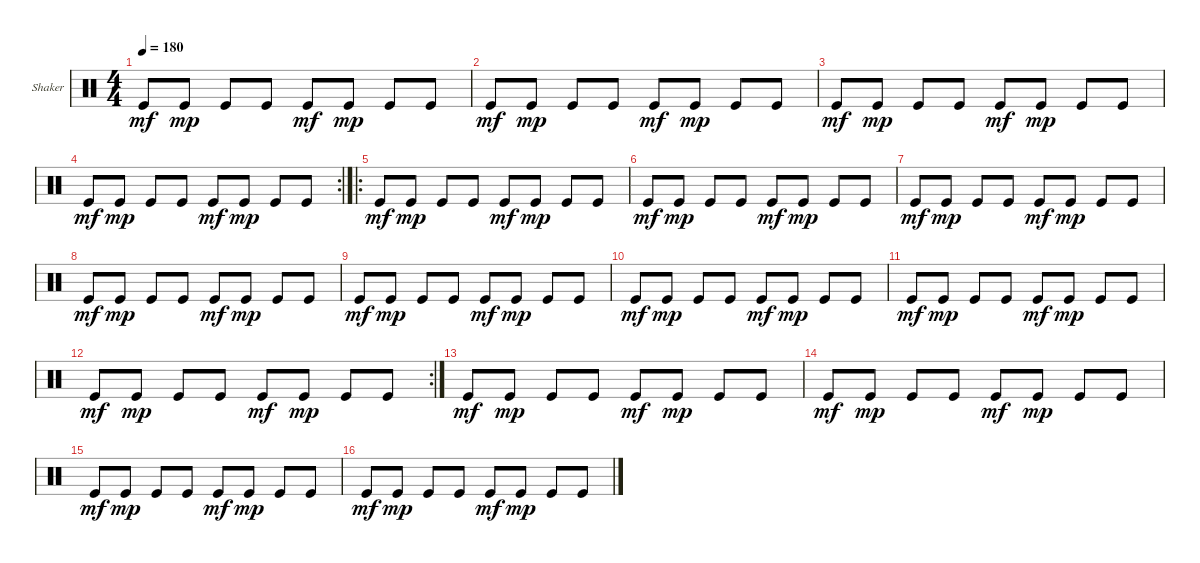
\defaultSystemsLayout 4
\bracketExtendMode groupsimilarinstruments
\firstSystemTrackNameOrientation horizontal
\otherSystemsTrackNameOrientation horizontal
\track ("Shaker" "Shaker") {instrument percussion}
\staff {score}
\articulation defaults
\ts (4 4)
\tempo 180
\clef neutral
\ks c "Kick (hit)".8{dy mf} "Kick (hit)".8{dy mp} "Kick (hit)".8 "Kick (hit)".8 "Kick (hit)".8{dy mf} "Kick (hit)".8{dy mp} "Kick (hit)".8 "Kick (hit)".8
|
"Kick (hit)".8{dy mf} "Kick (hit)".8{dy mp} "Kick (hit)".8 "Kick (hit)".8 "Kick (hit)".8{dy mf} "Kick (hit)".8{dy mp} "Kick (hit)".8 "Kick (hit)".8 |
"Kick (hit)".8{dy mf} "Kick (hit)".8{dy mp} "Kick (hit)".8 "Kick (hit)".8 "Kick (hit)".8{dy mf} "Kick (hit)".8{dy mp} "Kick (hit)".8 "Kick (hit)".8 |
\rc 2 "Kick (hit)".8{dy mf} "Kick (hit)".8{dy mp} "Kick (hit)".8 "Kick (hit)".8 "Kick (hit)".8{dy mf} "Kick (hit)".8{dy mp} "Kick (hit)".8 "Kick (hit)".8
|
\ro "Kick (hit)".8{dy mf} "Kick (hit)".8{dy mp} "Kick (hit)".8 "Kick (hit)".8 "Kick (hit)".8{dy mf} "Kick (hit)".8{dy mp} "Kick (hit)".8 "Kick (hit)".8
|
"Kick (hit)".8{dy mf} "Kick (hit)".8{dy mp} "Kick (hit)".8 "Kick (hit)".8 "Kick (hit)".8{dy mf} "Kick (hit)".8{dy mp} "Kick (hit)".8 "Kick (hit)".8 |
"Kick (hit)".8{dy mf} "Kick (hit)".8{dy mp} "Kick (hit)".8 "Kick (hit)".8 "Kick (hit)".8{dy mf} "Kick (hit)".8{dy mp} "Kick (hit)".8 "Kick (hit)".8 |
"Kick (hit)".8{dy mf} "Kick (hit)".8{dy mp} "Kick (hit)".8 "Kick (hit)".8 "Kick (hit)".8{dy mf} "Kick (hit)".8{dy mp} "Kick (hit)".8 "Kick (hit)".8 |
"Kick (hit)".8{dy mf} "Kick (hit)".8{dy mp} "Kick (hit)".8 "Kick (hit)".8 "Kick (hit)".8{dy mf} "Kick (hit)".8{dy mp} "Kick (hit)".8 "Kick (hit)".8 |
"Kick (hit)".8{dy mf} "Kick (hit)".8{dy mp} "Kick (hit)".8 "Kick (hit)".8 "Kick (hit)".8{dy mf} "Kick (hit)".8{dy mp} "Kick (hit)".8 "Kick (hit)".8 |
"Kick (hit)".8{dy mf} "Kick (hit)".8{dy mp} "Kick (hit)".8 "Kick (hit)".8 "Kick (hit)".8{dy mf} "Kick (hit)".8{dy mp} "Kick (hit)".8 "Kick (hit)".8 |
\rc 2 "Kick (hit)".8{dy mf} "Kick (hit)".8{dy mp} "Kick (hit)".8 "Kick (hit)".8 "Kick (hit)".8{dy mf} "Kick (hit)".8{dy mp} "Kick (hit)".8 "Kick (hit)".8
|
"Kick (hit)".8{dy mf} "Kick (hit)".8{dy mp} "Kick (hit)".8 "Kick (hit)".8 "Kick (hit)".8{dy mf} "Kick (hit)".8{dy mp} "Kick (hit)".8 "Kick (hit)".8 |
"Kick (hit)".8{dy mf} "Kick (hit)".8{dy mp} "Kick (hit)".8 "Kick (hit)".8 "Kick (hit)".8{dy mf} "Kick (hit)".8{dy mp} "Kick (hit)".8 "Kick (hit)".8 |
"Kick (hit)".8{dy mf} "Kick (hit)".8{dy mp} "Kick (hit)".8 "Kick (hit)".8 "Kick (hit)".8{dy mf} "Kick (hit)".8{dy mp} "Kick (hit)".8 "Kick (hit)".8 |
"Kick (hit)".8{dy mf} "Kick (hit)".8{dy mp} "Kick (hit)".8 "Kick (hit)".8 "Kick (hit)".8{dy mf} "Kick (hit)".8{dy mp} "Kick (hit)".8 "Kick (hit)".8
